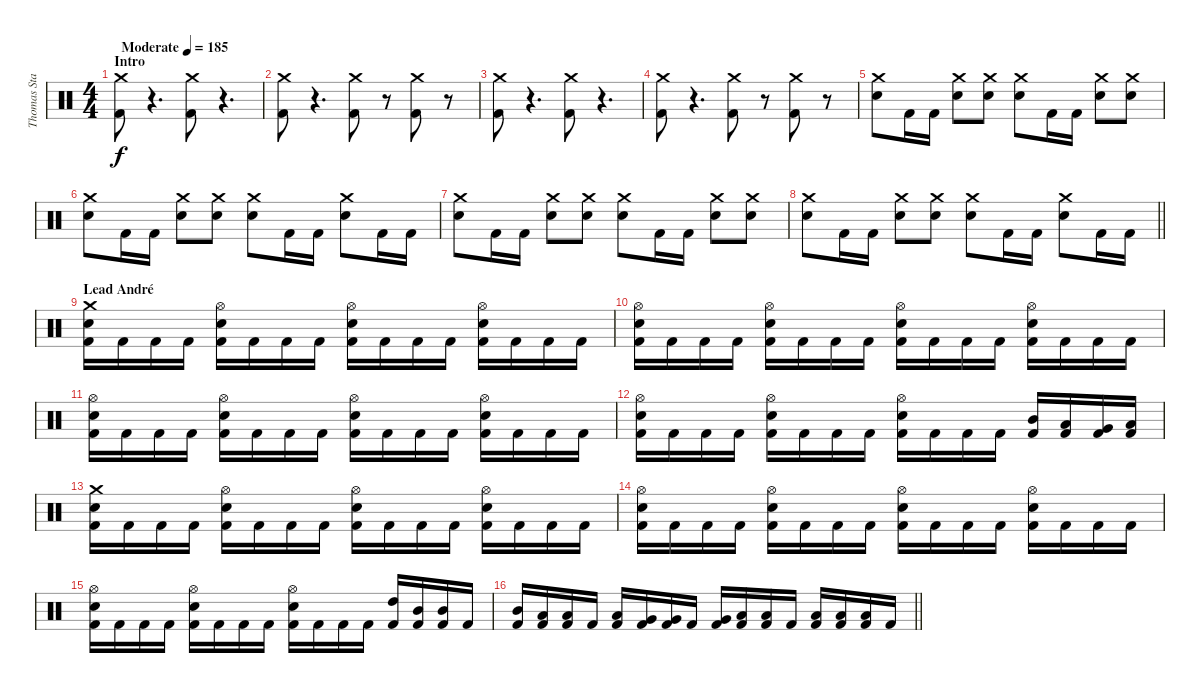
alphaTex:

\track ("Thomas Stauch" "Thomas Sta") {instrument percussion}
\staff {score}
\articulation defaults
\ts (4 4)
\section ("" "Intro")
\tempo (185 "Moderate")
\clef neutral
\ks c
("Crash medium (hit)" "Kick (hit) 2").8{dy f} r.4{d} ("Crash medium (hit)" "Kick (hit) 2").8 r.4{d} |
("Crash medium (hit)" "Kick (hit) 2").8 r.4{d} ("Crash medium (hit)" "Kick (hit) 2").8 r.8 ("Crash medium (hit)" "Kick (hit) 2").8 r.8 |
("Crash medium (hit)" "Kick (hit) 2").8 r.4{d} ("Crash medium (hit)" "Kick (hit) 2").8 r.4{d} |
("Crash medium (hit)" "Kick (hit) 2").8 r.4{d} ("Crash medium (hit)" "Kick (hit) 2").8 r.8 ("Crash medium (hit)" "Kick (hit) 2").8 r.8 |
("Crash medium (hit)" "Electric Snare (hit)").8 "Kick (hit) 2".16 "Kick (hit) 2".16 ("Crash medium (hit)" "Electric Snare (hit)").8 ("Crash medium (hit)" "Electric Snare (hit)").8 ("Crash medium (hit)" "Electric Snare (hit)").8 "Kick (hit) 2".16 "Kick (hit) 2".16 ("Crash medium (hit)" "Electric Snare (hit)").8 ("Crash medium (hit)" "Electric Snare (hit)").8 |
("Crash medium (hit)" "Electric Snare (hit)").8 "Kick (hit) 2".16 "Kick (hit) 2".16 ("Crash medium (hit)" "Electric Snare (hit)").8 ("Crash medium (hit)" "Electric Snare (hit)").8 ("Crash medium (hit)" "Electric Snare (hit)").8 "Kick (hit) 2".16 "Kick (hit) 2".16 ("Crash medium (hit)" "Electric Snare (hit)").8 "Kick (hit) 2".16 "Kick (hit) 2".16 |
("Crash medium (hit)" "Electric Snare (hit)").8 "Kick (hit) 2".16 "Kick (hit) 2".16 ("Crash medium (hit)" "Electric Snare (hit)").8 ("Crash medium (hit)" "Electric Snare (hit)").8 ("Crash medium (hit)" "Electric Snare (hit)").8 "Kick (hit) 2".16 "Kick (hit) 2".16 ("Crash medium (hit)" "Electric Snare (hit)").8 ("Crash medium (hit)" "Electric Snare (hit)").8 |
\barLineRight lightlight
("Crash medium (hit)" "Electric Snare (hit)").8 "Kick (hit) 2".16 "Kick (hit) 2".16 ("Crash medium (hit)" "Electric Snare (hit)").8 ("Crash medium (hit)" "Electric Snare (hit)").8 ("Crash medium (hit)" "Electric Snare (hit)").8 "Kick (hit) 2".16 "Kick (hit) 2".16 ("Crash medium (hit)" "Electric Snare (hit)").8 "Kick (hit) 2".16 "Kick (hit) 2".16 |
\section ("" "Lead André")
("Crash medium (hit)" "Electric Snare (hit)" "Kick (hit) 2").16 "Kick (hit) 2".16 "Kick (hit) 2".16 "Kick (hit) 2".16 ("Hi-Hat (open)" "Electric Snare (hit)" "Kick (hit) 2").16 "Kick (hit) 2".16 "Kick (hit) 2".16 "Kick (hit) 2".16 ("Hi-Hat (open)" "Electric Snare (hit)" "Kick (hit) 2").16 "Kick (hit) 2".16 "Kick (hit) 2".16 "Kick (hit) 2".16 ("Hi-Hat (open)" "Electric Snare (hit)" "Kick (hit) 2").16 "Kick (hit) 2".16 "Kick (hit) 2".16 "Kick (hit) 2".16 |
("Hi-Hat (open)" "Electric Snare (hit)" "Kick (hit) 2").16 "Kick (hit) 2".16 "Kick (hit) 2".16 "Kick (hit) 2".16 ("Hi-Hat (open)" "Electric Snare (hit)" "Kick (hit) 2").16 "Kick (hit) 2".16 "Kick (hit) 2".16 "Kick (hit) 2".16 ("Hi-Hat (open)" "Electric Snare (hit)" "Kick (hit) 2").16 "Kick (hit) 2".16 "Kick (hit) 2".16 "Kick (hit) 2".16 ("Hi-Hat (open)" "Electric Snare (hit)" "Kick (hit) 2").16 "Kick (hit) 2".16 "Kick (hit) 2".16 "Kick (hit) 2".16 |
("Hi-Hat (open)" "Electric Snare (hit)" "Kick (hit) 2").16 "Kick (hit) 2".16 "Kick (hit) 2".16 "Kick (hit) 2".16 ("Hi-Hat (open)" "Electric Snare (hit)" "Kick (hit) 2").16 "Kick (hit) 2".16 "Kick (hit) 2".16 "Kick (hit) 2".16 ("Hi-Hat (open)" "Electric Snare (hit)" "Kick (hit) 2").16 "Kick (hit) 2".16 "Kick (hit) 2".16 "Kick (hit) 2".16 ("Hi-Hat (open)" "Electric Snare (hit)" "Kick (hit) 2").16 "Kick (hit) 2".16 "Kick (hit) 2".16 "Kick (hit) 2".16 |
("Hi-Hat (open)" "Electric Snare (hit)" "Kick (hit) 2").16 "Kick (hit) 2".16 "Kick (hit) 2".16 "Kick (hit) 2".16 ("Hi-Hat (open)" "Electric Snare (hit)" "Kick (hit) 2").16 "Kick (hit) 2".16 "Kick (hit) 2".16 "Kick (hit) 2".16 ("Hi-Hat (open)" "Electric Snare (hit)" "Kick (hit) 2").16 "Kick (hit) 2".16 "Kick (hit) 2".16 "Kick (hit) 2".16 ("Mid Tom (hit)" "Kick (hit) 2").16 ("Low Tom (hit)" "Kick (hit) 2").16 ("Very Low Tom (hit)" "Kick (hit) 2").16 ("Low Floor Tom (hit)" "Kick (hit) 2").16 |
("Crash medium (hit)" "Electric Snare (hit)" "Kick (hit) 2").16 "Kick (hit) 2".16 "Kick (hit) 2".16 "Kick (hit) 2".16 ("Hi-Hat (open)" "Electric Snare (hit)" "Kick (hit) 2").16 "Kick (hit) 2".16 "Kick (hit) 2".16 "Kick (hit) 2".16 ("Hi-Hat (open)" "Electric Snare (hit)" "Kick (hit) 2").16 "Kick (hit) 2".16 "Kick (hit) 2".16 "Kick (hit) 2".16 ("Hi-Hat (open)" "Electric Snare (hit)" "Kick (hit) 2").16 "Kick (hit) 2".16 "Kick (hit) 2".16 "Kick (hit) 2".16 |
("Hi-Hat (open)" "Electric Snare (hit)" "Kick (hit) 2").16 "Kick (hit) 2".16 "Kick (hit) 2".16 "Kick (hit) 2".16 ("Hi-Hat (open)" "Electric Snare (hit)" "Kick (hit) 2").16 "Kick (hit) 2".16 "Kick (hit) 2".16 "Kick (hit) 2".16 ("Hi-Hat (open)" "Electric Snare (hit)" "Kick (hit) 2").16 "Kick (hit) 2".16 "Kick (hit) 2".16 "Kick (hit) 2".16 ("Hi-Hat (open)" "Electric Snare (hit)" "Kick (hit) 2").16 "Kick (hit) 2".16 "Kick (hit) 2".16 "Kick (hit) 2".16 |
("Hi-Hat (open)" "Electric Snare (hit)" "Kick (hit) 2").16 "Kick (hit) 2".16 "Kick (hit) 2".16 "Kick (hit) 2".16 ("Hi-Hat (open)" "Electric Snare (hit)" "Kick (hit) 2").16 "Kick (hit) 2".16 "Kick (hit) 2".16 "Kick (hit) 2".16 ("Hi-Hat (open)" "Electric Snare (hit)" "Kick (hit) 2").16 "Kick (hit) 2".16 "Kick (hit) 2".16 "Kick (hit) 2".16 ("High Tom (hit)" "Kick (hit) 2").16 ("Mid Tom (hit)" "Kick (hit) 2").16 ("Mid Tom (hit)" "Kick (hit) 2").16 "Kick (hit) 2".16 |
\barLineRight lightlight
("Mid Tom (hit)" "Kick (hit) 2").16 ("Low Tom (hit)" "Kick (hit) 2").16 ("Low Tom (hit)" "Kick (hit) 2").16 "Kick (hit) 2".16 ("Low Tom (hit)" "Kick (hit) 2").16 ("Very Low Tom (hit)" "Kick (hit) 2").16 ("Very Low Tom (hit)" "Kick (hit) 2").16 "Kick (hit) 2".16 ("Very Low Tom (hit)" "Kick (hit) 2").16 ("Low Floor Tom (hit)" "Kick (hit) 2").16 ("Low Floor Tom (hit)" "Kick (hit) 2").16 "Kick (hit) 2".16 ("Low Floor Tom (hit)" "Kick (hit) 2").16 ("Low Floor Tom (hit)" "Kick (hit) 2").16 ("Low Floor Tom (hit)" "Kick (hit) 2").16 "Kick (hit) 2".16
